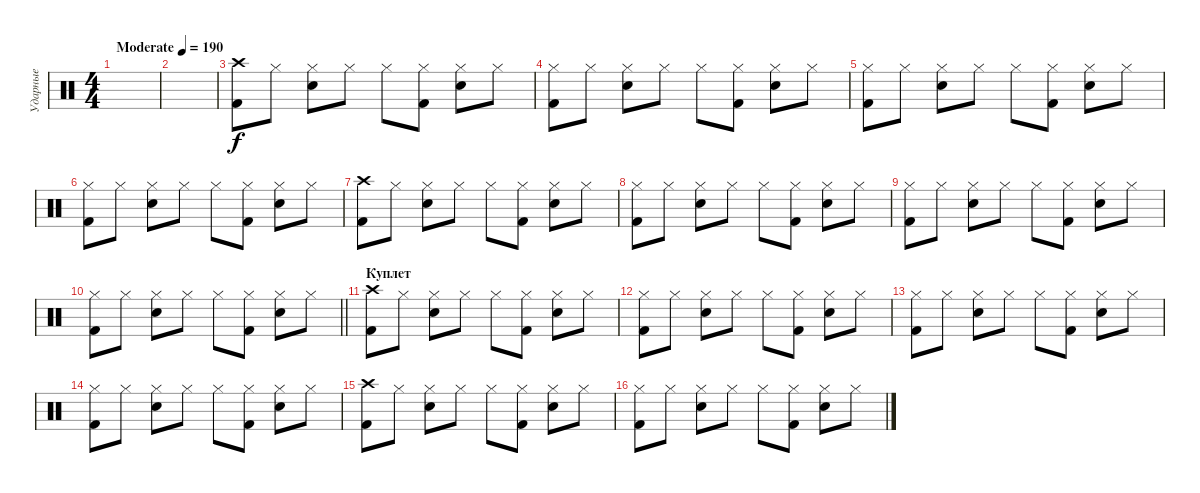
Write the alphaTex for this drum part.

\track ("Ударные" "Ударные") {instrument percussion}
\staff {score}
\articulation defaults
\ts (4 4)
\tempo (190 "Moderate")
\clef neutral
\ks c
|
|
("Crash high (hit)" "Kick (hit) 2").8 "Hi-Hat (closed)".8 ("Hi-Hat (closed)" "Snare (hit) 2").8 "Hi-Hat (closed)".8 "Hi-Hat (closed)".8 ("Hi-Hat (closed)" "Kick (hit) 2").8 ("Hi-Hat (closed)" "Snare (hit) 2").8 "Hi-Hat (closed)".8 |
("Hi-Hat (closed)" "Kick (hit) 2").8 "Hi-Hat (closed)".8 ("Hi-Hat (closed)" "Snare (hit) 2").8 "Hi-Hat (closed)".8 "Hi-Hat (closed)".8 ("Hi-Hat (closed)" "Kick (hit) 2").8 ("Hi-Hat (closed)" "Snare (hit) 2").8 "Hi-Hat (closed)".8 |
("Hi-Hat (closed)" "Kick (hit) 2").8 "Hi-Hat (closed)".8 ("Hi-Hat (closed)" "Snare (hit) 2").8 "Hi-Hat (closed)".8 "Hi-Hat (closed)".8 ("Hi-Hat (closed)" "Kick (hit) 2").8 ("Hi-Hat (closed)" "Snare (hit) 2").8 "Hi-Hat (closed)".8 |
("Hi-Hat (closed)" "Kick (hit) 2").8 "Hi-Hat (closed)".8 ("Hi-Hat (closed)" "Snare (hit) 2").8 "Hi-Hat (closed)".8 "Hi-Hat (closed)".8 ("Hi-Hat (closed)" "Kick (hit) 2").8 ("Hi-Hat (closed)" "Snare (hit) 2").8 "Hi-Hat (closed)".8 |
("Crash high (hit)" "Kick (hit) 2").8 "Hi-Hat (closed)".8 ("Hi-Hat (closed)" "Snare (hit) 2").8 "Hi-Hat (closed)".8 "Hi-Hat (closed)".8 ("Hi-Hat (closed)" "Kick (hit) 2").8 ("Hi-Hat (closed)" "Snare (hit) 2").8 "Hi-Hat (closed)".8 |
("Hi-Hat (closed)" "Kick (hit) 2").8 "Hi-Hat (closed)".8 ("Hi-Hat (closed)" "Snare (hit) 2").8 "Hi-Hat (closed)".8 "Hi-Hat (closed)".8 ("Hi-Hat (closed)" "Kick (hit) 2").8 ("Hi-Hat (closed)" "Snare (hit) 2").8 "Hi-Hat (closed)".8 |
("Hi-Hat (closed)" "Kick (hit) 2").8 "Hi-Hat (closed)".8 ("Hi-Hat (closed)" "Snare (hit) 2").8 "Hi-Hat (closed)".8 "Hi-Hat (closed)".8 ("Hi-Hat (closed)" "Kick (hit) 2").8 ("Hi-Hat (closed)" "Snare (hit) 2").8 "Hi-Hat (closed)".8 |
\barLineRight lightlight
("Hi-Hat (closed)" "Kick (hit) 2").8 "Hi-Hat (closed)".8 ("Hi-Hat (closed)" "Snare (hit) 2").8 "Hi-Hat (closed)".8 "Hi-Hat (closed)".8 ("Hi-Hat (closed)" "Kick (hit) 2").8 ("Hi-Hat (closed)" "Snare (hit) 2").8 "Hi-Hat (closed)".8 |
\section ("" "Куплет")
("Crash high (hit)" "Kick (hit) 2").8 "Hi-Hat (closed)".8 ("Hi-Hat (closed)" "Snare (hit) 2").8 "Hi-Hat (closed)".8 "Hi-Hat (closed)".8 ("Hi-Hat (closed)" "Kick (hit) 2").8 ("Hi-Hat (closed)" "Snare (hit) 2").8 "Hi-Hat (closed)".8 |
("Hi-Hat (closed)" "Kick (hit) 2").8 "Hi-Hat (closed)".8 ("Hi-Hat (closed)" "Snare (hit) 2").8 "Hi-Hat (closed)".8 "Hi-Hat (closed)".8 ("Hi-Hat (closed)" "Kick (hit) 2").8 ("Hi-Hat (closed)" "Snare (hit) 2").8 "Hi-Hat (closed)".8 |
("Hi-Hat (closed)" "Kick (hit) 2").8 "Hi-Hat (closed)".8 ("Hi-Hat (closed)" "Snare (hit) 2").8 "Hi-Hat (closed)".8 "Hi-Hat (closed)".8 ("Hi-Hat (closed)" "Kick (hit) 2").8 ("Hi-Hat (closed)" "Snare (hit) 2").8 "Hi-Hat (closed)".8 |
("Hi-Hat (closed)" "Kick (hit) 2").8 "Hi-Hat (closed)".8 ("Hi-Hat (closed)" "Snare (hit) 2").8 "Hi-Hat (closed)".8 "Hi-Hat (closed)".8 ("Hi-Hat (closed)" "Kick (hit) 2").8 ("Hi-Hat (closed)" "Snare (hit) 2").8 "Hi-Hat (closed)".8 |
("Crash high (hit)" "Kick (hit) 2").8 "Hi-Hat (closed)".8 ("Hi-Hat (closed)" "Snare (hit) 2").8 "Hi-Hat (closed)".8 "Hi-Hat (closed)".8 ("Hi-Hat (closed)" "Kick (hit) 2").8 ("Hi-Hat (closed)" "Snare (hit) 2").8 "Hi-Hat (closed)".8 |
("Hi-Hat (closed)" "Kick (hit) 2").8 "Hi-Hat (closed)".8 ("Hi-Hat (closed)" "Snare (hit) 2").8 "Hi-Hat (closed)".8 "Hi-Hat (closed)".8 ("Hi-Hat (closed)" "Kick (hit) 2").8 ("Hi-Hat (closed)" "Snare (hit) 2").8 "Hi-Hat (closed)".8
